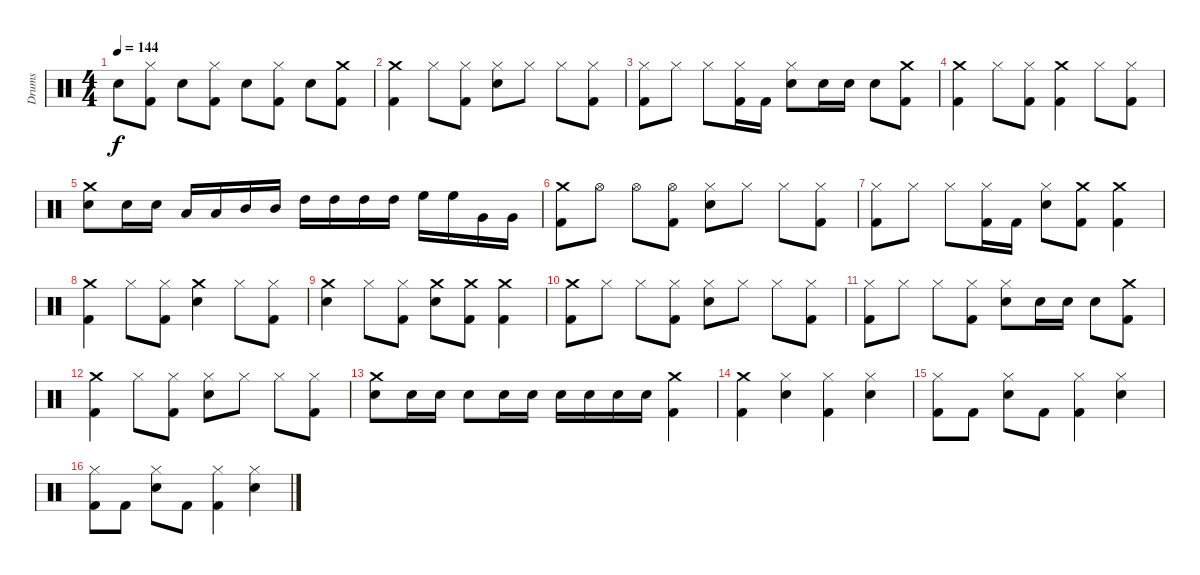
\track ("Drums" "Drums") {instrument percussion}
\staff {score}
\articulation defaults
\ts (4 4)
\tempo 144
\clef neutral
\ks c "Snare (hit) 2".8{dy f}
("Kick (hit) 2" "Hi-Hat (closed)").8 "Snare (hit) 2".8 ("Kick (hit) 2" "Hi-Hat (closed)").8 "Snare (hit) 2".8 ("Hi-Hat (closed)" "Kick (hit) 2").8 "Snare (hit) 2".8 ("Crash medium (hit)" "Kick (hit) 2").8 |
("Kick (hit) 2" "Crash medium (hit)").4 "Hi-Hat (closed)".8 ("Kick (hit) 2" "Hi-Hat (closed)").8 ("Snare (hit) 2" "Hi-Hat (closed)").8 "Hi-Hat (closed)".8 "Hi-Hat (closed)".8 ("Kick (hit) 2" "Hi-Hat (closed)").8 |
("Kick (hit) 2" "Hi-Hat (closed)").8 "Hi-Hat (closed)".8 "Hi-Hat (closed)".8 ("Kick (hit) 2" "Hi-Hat (closed)").16 "Kick (hit) 2".16 ("Snare (hit) 2" "Hi-Hat (closed)").8 "Snare (hit) 2".16 "Snare (hit) 2".16 "Snare (hit) 2".8 ("Crash medium (hit)" "Kick (hit) 2").8 |
("Kick (hit) 2" "Crash medium (hit)").4 "Hi-Hat (closed)".8 ("Kick (hit) 2" "Hi-Hat (closed)").8 ("Kick (hit) 2" "Crash medium (hit)").4 "Hi-Hat (closed)".8 ("Kick (hit) 2" "Hi-Hat (closed)").8 |
("Snare (hit) 2" "Crash medium (hit)").8 "Snare (hit) 2".16 "Snare (hit) 2".16 "Low Tom (hit)".16 "Low Tom (hit)".16 "Mid Tom (hit)".16 "Mid Tom (hit)".16 "High Tom (hit)".16 "High Tom (hit)".16 "High Tom (hit)".16 "High Tom (hit)".16 "High Floor Tom (hit)".16 "High Floor Tom (hit)".16 "Very Low Tom (hit)".16 "Very Low Tom (hit)".16 |
("Kick (hit) 2" "Crash medium (hit)").8 "Hi-Hat (open)".8 "Hi-Hat (open)".8 ("Kick (hit) 2" "Hi-Hat (open)").8 ("Snare (hit) 2" "Hi-Hat (closed)").8 "Hi-Hat (closed)".8 "Hi-Hat (closed)".8 ("Kick (hit) 2" "Hi-Hat (closed)").8 |
("Kick (hit) 2" "Hi-Hat (closed)").8 "Hi-Hat (closed)".8 "Hi-Hat (closed)".8 ("Kick (hit) 2" "Hi-Hat (closed)").16 "Kick (hit) 2".16 ("Snare (hit) 2" "Hi-Hat (closed)").8 ("Kick (hit) 2" "Crash medium (hit)").8 ("Kick (hit) 2" "Crash medium (hit)").4 |
("Kick (hit) 2" "Crash medium (hit)").4 "Hi-Hat (closed)".8 ("Kick (hit) 2" "Hi-Hat (closed)").8 ("Snare (hit) 2" "Crash medium (hit)").4 "Hi-Hat (closed)".8 ("Kick (hit) 2" "Hi-Hat (closed)").8 |
("Snare (hit) 2" "Crash medium (hit)").4 "Hi-Hat (closed)".8 ("Kick (hit) 2" "Hi-Hat (closed)").8 ("Snare (hit) 2" "Crash medium (hit)").8 ("Kick (hit) 2" "Crash medium (hit)").8 ("Crash medium (hit)" "Kick (hit) 2").4 |
("Crash medium (hit)" "Kick (hit) 2").8 "Hi-Hat (closed)".8 "Hi-Hat (closed)".8 ("Kick (hit) 2" "Hi-Hat (closed)").8 ("Snare (hit) 2" "Hi-Hat (closed)").8 "Hi-Hat (closed)".8 "Hi-Hat (closed)".8 ("Kick (hit) 2" "Hi-Hat (closed)").8 |
("Hi-Hat (closed)" "Kick (hit) 2").8 "Hi-Hat (closed)".8 "Hi-Hat (closed)".8 ("Kick (hit) 2" "Hi-Hat (closed)").8 ("Snare (hit) 2" "Hi-Hat (closed)").8 "Snare (hit) 2".16 "Snare (hit) 2".16 "Snare (hit) 2".8 ("Kick (hit) 2" "Crash medium (hit)").8 |
("Kick (hit) 2" "Crash medium (hit)").4 "Hi-Hat (closed)".8 ("Hi-Hat (closed)" "Kick (hit) 2").8 ("Hi-Hat (closed)" "Snare (hit) 2").8 "Hi-Hat (closed)".8 "Hi-Hat (closed)".8 ("Hi-Hat (closed)" "Kick (hit) 2").8 |
("Snare (hit) 2" "Crash medium (hit)").8 "Snare (hit) 2".16 "Snare (hit) 2".16 "Snare (hit) 2".8 "Snare (hit) 2".16 "Snare (hit) 2".16 "Snare (hit) 2".16 "Snare (hit) 2".16 "Snare (hit) 2".16 "Snare (hit) 2".16 ("Crash medium (hit)" "Kick (hit) 2").4 |
("Kick (hit) 2" "Crash medium (hit)").4 ("Hi-Hat (closed)" "Snare (hit) 2").4 ("Kick (hit) 2" "Hi-Hat (closed)").4 ("Snare (hit) 2" "Hi-Hat (closed)").4 |
("Kick (hit) 2" "Hi-Hat (closed)").8 "Kick (hit) 2".8 ("Snare (hit) 2" "Hi-Hat (closed)").8 "Kick (hit) 2".8 ("Kick (hit) 2" "Hi-Hat (closed)").4 ("Snare (hit) 2" "Hi-Hat (closed)").4 |
("Kick (hit) 2" "Hi-Hat (closed)").8 "Kick (hit) 2".8 ("Snare (hit) 2" "Hi-Hat (closed)").8 "Kick (hit) 2".8 ("Kick (hit) 2" "Hi-Hat (closed)").4 ("Snare (hit) 2" "Hi-Hat (closed)").4
